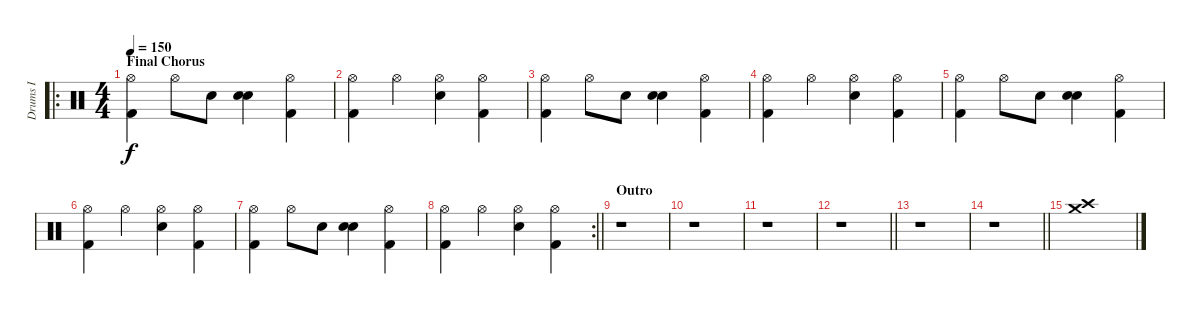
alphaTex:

\track ("Drums I" "Drums I") {instrument percussion}
\staff {score}
\articulation defaults
\ro
\ts (4 4)
\section ("" "Final Chorus")
\tempo 150
\clef neutral
\ks c
("Hi-Hat (open)" "Kick (hit) 2").4{dy f} "Hi-Hat (open)".8 "Snare (hit) 2".8 ("Snare (hit) 2" "Electric Snare (hit)").4 ("Hi-Hat (open)" "Kick (hit) 2").4 |
("Hi-Hat (open)" "Kick (hit) 2").4 "Hi-Hat (open)".4 ("Hi-Hat (open)" "Electric Snare (hit)").4 ("Hi-Hat (open)" "Kick (hit) 2").4 |
("Hi-Hat (open)" "Kick (hit) 2").4 "Hi-Hat (open)".8 "Snare (hit) 2".8 ("Snare (hit) 2" "Electric Snare (hit)").4 ("Hi-Hat (open)" "Kick (hit) 2").4 |
("Hi-Hat (open)" "Kick (hit) 2").4 "Hi-Hat (open)".4 ("Hi-Hat (open)" "Electric Snare (hit)").4 ("Hi-Hat (open)" "Kick (hit) 2").4 |
("Hi-Hat (open)" "Kick (hit) 2").4 "Hi-Hat (open)".8 "Snare (hit) 2".8 ("Snare (hit) 2" "Electric Snare (hit)").4 ("Hi-Hat (open)" "Kick (hit) 2").4 |
("Hi-Hat (open)" "Kick (hit) 2").4 "Hi-Hat (open)".4 ("Hi-Hat (open)" "Electric Snare (hit)").4 ("Hi-Hat (open)" "Kick (hit) 2").4 |
("Hi-Hat (open)" "Kick (hit) 2").4 "Hi-Hat (open)".8 "Snare (hit) 2".8 ("Snare (hit) 2" "Electric Snare (hit)").4 ("Hi-Hat (open)" "Kick (hit) 2").4 |
\rc 2
\barLineRight lightlight
("Hi-Hat (open)" "Kick (hit) 2").4 "Hi-Hat (open)".4 ("Hi-Hat (open)" "Electric Snare (hit)").4 ("Hi-Hat (open)" "Kick (hit) 2").4 |
\section ("" "Outro")
r.1 |
r.1 |
r.1 |
\barLineRight lightlight
r.1 |
r.1 |
\barLineRight lightlight
r.1 |
("Crash medium (hit)" "Crash high (hit)").1
